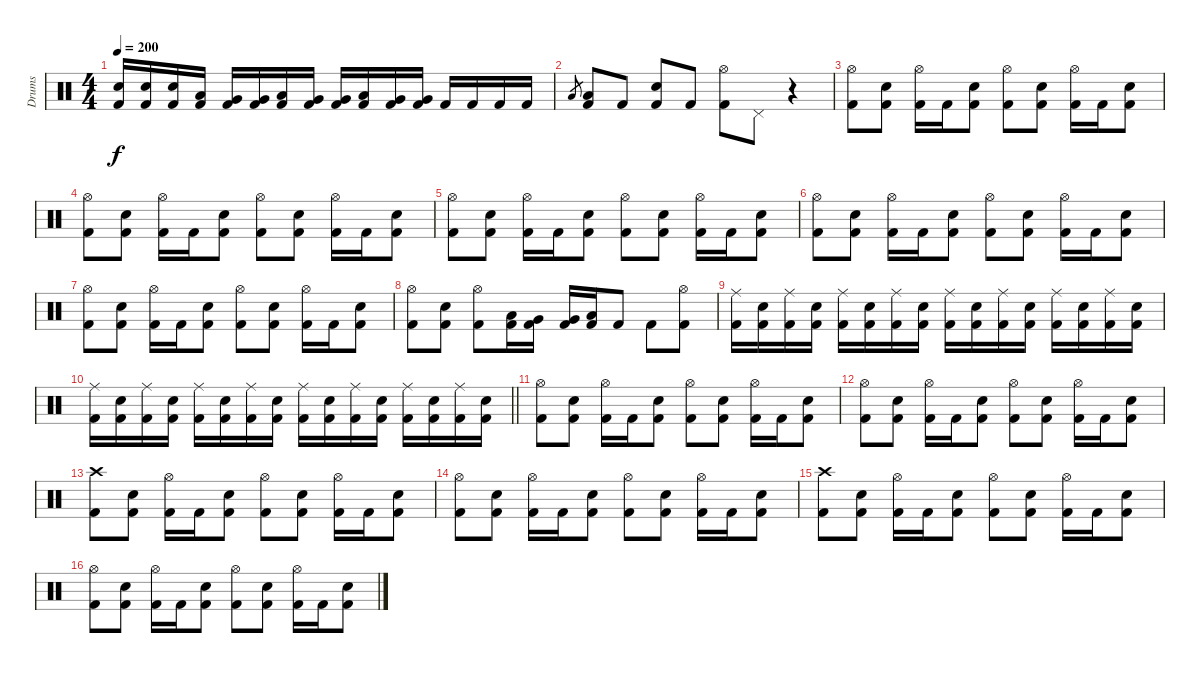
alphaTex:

\track ("Drums" "Drums") {instrument percussion}
\staff {score}
\articulation defaults
\ts (4 4)
\tempo 200
\clef neutral
\ks c
("Electric Snare (hit)" "Kick (hit) 2").16{dy f} ("Electric Snare (hit)" "Kick (hit) 2").16 ("Electric Snare (hit)" "Kick (hit) 2").16 ("Low Tom (hit)" "Kick (hit) 2").16 ("Very Low Tom (hit)" "Kick (hit) 2").16 ("Very Low Tom (hit)" "Kick (hit) 2").16 ("Low Tom (hit)" "Kick (hit) 2").16 ("Very Low Tom (hit)" "Kick (hit) 2").16 ("Very Low Tom (hit)" "Kick (hit) 2").16 ("Low Tom (hit)" "Kick (hit) 2").16 ("Very Low Tom (hit)" "Kick (hit) 2").16 ("Very Low Tom (hit)" "Kick (hit) 2").16 "Kick (hit) 2".16 "Kick (hit) 2".16 "Kick (hit) 2".16 "Kick (hit) 2".16 |
"Low Tom (hit)".8{gr} ("Low Tom (hit)" "Kick (hit) 2").8 "Kick (hit) 2".8 ("Electric Snare (hit)" "Kick (hit) 2").8 "Kick (hit) 2".8 ("Hi-Hat (open)" "Kick (hit) 2").8 "Pedal Hi-Hat (hit)".8 r.4 |
("Hi-Hat (open)" "Kick (hit) 2").8 ("Electric Snare (hit)" "Kick (hit) 2").8 ("Hi-Hat (open)" "Kick (hit) 2").16 "Kick (hit) 2".16 ("Electric Snare (hit)" "Kick (hit) 2").8 ("Hi-Hat (open)" "Kick (hit) 2").8 ("Electric Snare (hit)" "Kick (hit) 2").8 ("Hi-Hat (open)" "Kick (hit) 2").16 "Kick (hit) 2".16 ("Electric Snare (hit)" "Kick (hit) 2").8 |
("Hi-Hat (open)" "Kick (hit) 2").8 ("Electric Snare (hit)" "Kick (hit) 2").8 ("Hi-Hat (open)" "Kick (hit) 2").16 "Kick (hit) 2".16 ("Electric Snare (hit)" "Kick (hit) 2").8 ("Hi-Hat (open)" "Kick (hit) 2").8 ("Electric Snare (hit)" "Kick (hit) 2").8 ("Hi-Hat (open)" "Kick (hit) 2").16 "Kick (hit) 2".16 ("Electric Snare (hit)" "Kick (hit) 2").8 |
("Hi-Hat (open)" "Kick (hit) 2").8 ("Electric Snare (hit)" "Kick (hit) 2").8 ("Hi-Hat (open)" "Kick (hit) 2").16 "Kick (hit) 2".16 ("Electric Snare (hit)" "Kick (hit) 2").8 ("Hi-Hat (open)" "Kick (hit) 2").8 ("Electric Snare (hit)" "Kick (hit) 2").8 ("Hi-Hat (open)" "Kick (hit) 2").16 "Kick (hit) 2".16 ("Electric Snare (hit)" "Kick (hit) 2").8 |
("Hi-Hat (open)" "Kick (hit) 2").8 ("Electric Snare (hit)" "Kick (hit) 2").8 ("Hi-Hat (open)" "Kick (hit) 2").16 "Kick (hit) 2".16 ("Electric Snare (hit)" "Kick (hit) 2").8 ("Hi-Hat (open)" "Kick (hit) 2").8 ("Electric Snare (hit)" "Kick (hit) 2").8 ("Hi-Hat (open)" "Kick (hit) 2").16 "Kick (hit) 2".16 ("Electric Snare (hit)" "Kick (hit) 2").8 |
("Hi-Hat (open)" "Kick (hit) 2").8 ("Electric Snare (hit)" "Kick (hit) 2").8 ("Hi-Hat (open)" "Kick (hit) 2").16 "Kick (hit) 2".16 ("Electric Snare (hit)" "Kick (hit) 2").8 ("Hi-Hat (open)" "Kick (hit) 2").8 ("Electric Snare (hit)" "Kick (hit) 2").8 ("Hi-Hat (open)" "Kick (hit) 2").16 "Kick (hit) 2".16 ("Electric Snare (hit)" "Kick (hit) 2").8 |
("Hi-Hat (open)" "Kick (hit) 2").8 ("Electric Snare (hit)" "Kick (hit) 2").8 ("Hi-Hat (open)" "Kick (hit) 2").8 ("Low Tom (hit)" "Kick (hit) 2").16 ("Very Low Tom (hit)" "Kick (hit) 2").16 ("Very Low Tom (hit)" "Kick (hit) 2").16 ("Low Floor Tom (hit)" "Kick (hit) 2").16 "Kick (hit) 2".8 "Kick (hit) 2".8 ("Hi-Hat (open)" "Kick (hit) 2").8 |
("Ride (middle)" "Kick (hit) 2").16 ("Electric Snare (hit)" "Kick (hit) 2").16 ("Ride (middle)" "Kick (hit) 2").16 ("Electric Snare (hit)" "Kick (hit) 2").16 ("Ride (middle)" "Kick (hit) 2").16 ("Electric Snare (hit)" "Kick (hit) 2").16 ("Ride (middle)" "Kick (hit) 2").16 ("Electric Snare (hit)" "Kick (hit) 2").16 ("Ride (middle)" "Kick (hit) 2").16 ("Electric Snare (hit)" "Kick (hit) 2").16 ("Ride (middle)" "Kick (hit) 2").16 ("Electric Snare (hit)" "Kick (hit) 2").16 ("Ride (middle)" "Kick (hit) 2").16 ("Electric Snare (hit)" "Kick (hit) 2").16 ("Ride (middle)" "Kick (hit) 2").16 ("Electric Snare (hit)" "Kick (hit) 2").16 |
\barLineRight lightlight
("Ride (middle)" "Kick (hit) 2").16 ("Electric Snare (hit)" "Kick (hit) 2").16 ("Ride (middle)" "Kick (hit) 2").16 ("Electric Snare (hit)" "Kick (hit) 2").16 ("Ride (middle)" "Kick (hit) 2").16 ("Electric Snare (hit)" "Kick (hit) 2").16 ("Ride (middle)" "Kick (hit) 2").16 ("Electric Snare (hit)" "Kick (hit) 2").16 ("Ride (middle)" "Kick (hit) 2").16 ("Electric Snare (hit)" "Kick (hit) 2").16 ("Ride (middle)" "Kick (hit) 2").16 ("Electric Snare (hit)" "Kick (hit) 2").16 ("Ride (middle)" "Kick (hit) 2").16 ("Electric Snare (hit)" "Kick (hit) 2").16 ("Ride (middle)" "Kick (hit) 2").16 ("Electric Snare (hit)" "Kick (hit) 2").16 |
\section ("" "")
("Hi-Hat (open)" "Kick (hit) 2").8 ("Electric Snare (hit)" "Kick (hit) 2").8 ("Hi-Hat (open)" "Kick (hit) 2").16 "Kick (hit) 2".16 ("Electric Snare (hit)" "Kick (hit) 2").8 ("Hi-Hat (open)" "Kick (hit) 2").8 ("Electric Snare (hit)" "Kick (hit) 2").8 ("Hi-Hat (open)" "Kick (hit) 2").16 "Kick (hit) 2".16 ("Electric Snare (hit)" "Kick (hit) 2").8 |
("Hi-Hat (open)" "Kick (hit) 2").8 ("Electric Snare (hit)" "Kick (hit) 2").8 ("Hi-Hat (open)" "Kick (hit) 2").16 "Kick (hit) 2".16 ("Electric Snare (hit)" "Kick (hit) 2").8 ("Hi-Hat (open)" "Kick (hit) 2").8 ("Electric Snare (hit)" "Kick (hit) 2").8 ("Hi-Hat (open)" "Kick (hit) 2").16 "Kick (hit) 2".16 ("Electric Snare (hit)" "Kick (hit) 2").8 |
("Crash high (hit)" "Kick (hit) 2").8 ("Electric Snare (hit)" "Kick (hit) 2").8 ("Hi-Hat (open)" "Kick (hit) 2").16 "Kick (hit) 2".16 ("Electric Snare (hit)" "Kick (hit) 2").8 ("Hi-Hat (open)" "Kick (hit) 2").8 ("Electric Snare (hit)" "Kick (hit) 2").8 ("Hi-Hat (open)" "Kick (hit) 2").16 "Kick (hit) 2".16 ("Electric Snare (hit)" "Kick (hit) 2").8 |
("Hi-Hat (open)" "Kick (hit) 2").8 ("Electric Snare (hit)" "Kick (hit) 2").8 ("Hi-Hat (open)" "Kick (hit) 2").16 "Kick (hit) 2".16 ("Electric Snare (hit)" "Kick (hit) 2").8 ("Hi-Hat (open)" "Kick (hit) 2").8 ("Electric Snare (hit)" "Kick (hit) 2").8 ("Hi-Hat (open)" "Kick (hit) 2").16 "Kick (hit) 2".16 ("Electric Snare (hit)" "Kick (hit) 2").8 |
("Crash high (hit)" "Kick (hit) 2").8 ("Electric Snare (hit)" "Kick (hit) 2").8 ("Hi-Hat (open)" "Kick (hit) 2").16 "Kick (hit) 2".16 ("Electric Snare (hit)" "Kick (hit) 2").8 ("Hi-Hat (open)" "Kick (hit) 2").8 ("Electric Snare (hit)" "Kick (hit) 2").8 ("Hi-Hat (open)" "Kick (hit) 2").16 "Kick (hit) 2".16 ("Electric Snare (hit)" "Kick (hit) 2").8 |
("Hi-Hat (open)" "Kick (hit) 2").8 ("Electric Snare (hit)" "Kick (hit) 2").8 ("Hi-Hat (open)" "Kick (hit) 2").16 "Kick (hit) 2".16 ("Electric Snare (hit)" "Kick (hit) 2").8 ("Hi-Hat (open)" "Kick (hit) 2").8 ("Electric Snare (hit)" "Kick (hit) 2").8 ("Hi-Hat (open)" "Kick (hit) 2").16 "Kick (hit) 2".16 ("Electric Snare (hit)" "Kick (hit) 2").8
